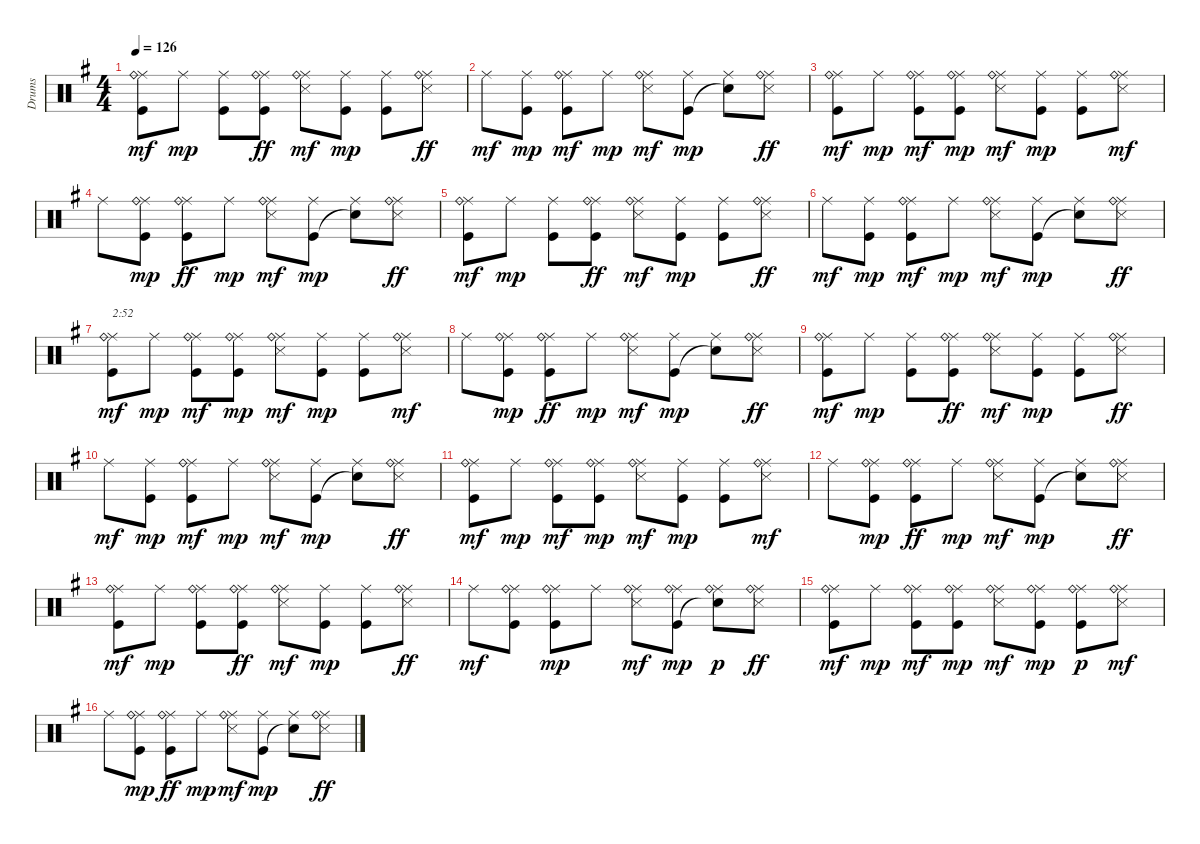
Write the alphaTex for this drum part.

\track ("Drums" "Drums") {instrument percussion}
\staff {score}
\articulation defaults
\ts (4 4)
\tempo 126
\clef neutral
\ks g
("Ride (middle)" "Ride (bell)" "Kick (hit)").8{dy mf} "Ride (middle)".8{dy mp} ("Ride (middle)" "Kick (hit)").8 ("Ride (middle)" "Ride (bell)" "Kick (hit)").8{dy ff} ("Ride (middle)" "Ride (bell)" "Snare (side stick) 3").8{dy mf} ("Ride (middle)" "Kick (hit)").8{dy mp} ("Ride (middle)" "Kick (hit)").8 ("Ride (middle)" "Ride (bell)" "Snare (side stick) 3").8{dy ff} |
"Ride (middle)".8{dy mf} ("Ride (middle)" "Kick (hit)").8{dy mp} ("Ride (middle)" "Ride (bell)" "Kick (hit)").8{dy mf} "Ride (middle)".8{dy mp} ("Ride (middle)" "Ride (bell)" "Snare (side stick) 3").8{dy mf} ("Ride (middle)" "Kick (hit)").8{dy mp} ("Ride (middle)" "Snare (hit)"{t}).8 ("Ride (middle)" "Ride (bell)" "Snare (side stick) 3").8{dy ff} |
("Ride (middle)" "Ride (bell)" "Kick (hit)").8{dy mf} "Ride (middle)".8{dy mp} ("Ride (middle)" "Ride (bell)" "Kick (hit)").8{dy mf} ("Ride (middle)" "Ride (bell)" "Kick (hit)").8{dy mp} ("Ride (middle)" "Ride (bell)" "Snare (side stick) 3").8{dy mf} ("Ride (middle)" "Kick (hit)").8{dy mp} ("Ride (middle)" "Kick (hit)").8 ("Ride (middle)" "Ride (bell)" "Snare (side stick) 3").8{dy mf} |
"Ride (middle)".8 ("Ride (middle)" "Ride (bell)" "Kick (hit)").8{dy mp} ("Ride (middle)" "Ride (bell)" "Kick (hit)").8{dy ff} "Ride (middle)".8{dy mp} ("Ride (middle)" "Ride (bell)" "Snare (side stick) 3").8{dy mf} ("Ride (middle)" "Kick (hit)").8{dy mp} ("Ride (middle)" "Snare (hit)"{t}).8 ("Ride (middle)" "Ride (bell)" "Snare (side stick) 3").8{dy ff} |
("Ride (middle)" "Ride (bell)" "Kick (hit)").8{dy mf} "Ride (middle)".8{dy mp} ("Ride (middle)" "Kick (hit)").8 ("Ride (middle)" "Ride (bell)" "Kick (hit)").8{dy ff} ("Ride (middle)" "Ride (bell)" "Snare (side stick) 3").8{dy mf} ("Ride (middle)" "Kick (hit)").8{dy mp} ("Ride (middle)" "Kick (hit)").8 ("Ride (middle)" "Ride (bell)" "Snare (side stick) 3").8{dy ff} |
"Ride (middle)".8{dy mf} ("Ride (middle)" "Kick (hit)").8{dy mp} ("Ride (middle)" "Ride (bell)" "Kick (hit)").8{dy mf} "Ride (middle)".8{dy mp} ("Ride (middle)" "Ride (bell)" "Snare (side stick) 3").8{dy mf} ("Ride (middle)" "Kick (hit)").8{dy mp} ("Ride (middle)" "Snare (hit)"{t}).8 ("Ride (middle)" "Ride (bell)" "Snare (side stick) 3").8{dy ff} |
("Ride (middle)" "Ride (bell)" "Kick (hit)").8{txt "2:52" dy mf} "Ride (middle)".8{dy mp} ("Ride (middle)" "Ride (bell)" "Kick (hit)").8{dy mf} ("Ride (middle)" "Ride (bell)" "Kick (hit)").8{dy mp} ("Ride (middle)" "Ride (bell)" "Snare (side stick) 3").8{dy mf} ("Ride (middle)" "Kick (hit)").8{dy mp} ("Ride (middle)" "Kick (hit)").8 ("Ride (middle)" "Ride (bell)" "Snare (side stick) 3").8{dy mf} |
"Ride (middle)".8 ("Ride (middle)" "Ride (bell)" "Kick (hit)").8{dy mp} ("Ride (middle)" "Ride (bell)" "Kick (hit)").8{dy ff} "Ride (middle)".8{dy mp} ("Ride (middle)" "Ride (bell)" "Snare (side stick) 3").8{dy mf} ("Ride (middle)" "Kick (hit)").8{dy mp} ("Ride (middle)" "Snare (hit)"{t}).8 ("Ride (middle)" "Ride (bell)" "Snare (side stick) 3").8{dy ff} |
("Ride (middle)" "Ride (bell)" "Kick (hit)").8{dy mf} "Ride (middle)".8{dy mp} ("Ride (middle)" "Kick (hit)").8 ("Ride (middle)" "Ride (bell)" "Kick (hit)").8{dy ff} ("Ride (middle)" "Ride (bell)" "Snare (side stick) 3").8{dy mf} ("Ride (middle)" "Kick (hit)").8{dy mp} ("Ride (middle)" "Kick (hit)").8 ("Ride (middle)" "Ride (bell)" "Snare (side stick) 3").8{dy ff} |
"Ride (middle)".8{dy mf} ("Ride (middle)" "Kick (hit)").8{dy mp} ("Ride (middle)" "Ride (bell)" "Kick (hit)").8{dy mf} "Ride (middle)".8{dy mp} ("Ride (middle)" "Ride (bell)" "Snare (side stick) 3").8{dy mf} ("Ride (middle)" "Kick (hit)").8{dy mp} ("Ride (middle)" "Snare (hit)"{t}).8 ("Ride (middle)" "Ride (bell)" "Snare (side stick) 3").8{dy ff} |
("Ride (middle)" "Ride (bell)" "Kick (hit)").8{dy mf} "Ride (middle)".8{dy mp} ("Ride (middle)" "Ride (bell)" "Kick (hit)").8{dy mf} ("Ride (middle)" "Ride (bell)" "Kick (hit)").8{dy mp} ("Ride (middle)" "Ride (bell)" "Snare (side stick) 3").8{dy mf} ("Ride (middle)" "Kick (hit)").8{dy mp} ("Ride (middle)" "Kick (hit)").8 ("Ride (middle)" "Ride (bell)" "Snare (side stick) 3").8{dy mf} |
"Ride (middle)".8 ("Ride (middle)" "Ride (bell)" "Kick (hit)").8{dy mp} ("Ride (middle)" "Ride (bell)" "Kick (hit)").8{dy ff} "Ride (middle)".8{dy mp} ("Ride (middle)" "Ride (bell)" "Snare (side stick) 3").8{dy mf} ("Ride (middle)" "Kick (hit)").8{dy mp} ("Ride (middle)" "Snare (hit)"{t}).8 ("Ride (middle)" "Ride (bell)" "Snare (side stick) 3").8{dy ff} |
("Ride (middle)" "Ride (bell)" "Kick (hit)").8{dy mf} "Ride (middle)".8{dy mp} ("Ride (middle)" "Ride (bell)" "Kick (hit)").8 ("Ride (middle)" "Ride (bell)" "Kick (hit)").8{dy ff} ("Ride (middle)" "Ride (bell)" "Snare (side stick) 3").8{dy mf} ("Ride (middle)" "Kick (hit)").8{dy mp} ("Ride (middle)" "Kick (hit)").8 ("Ride (middle)" "Ride (bell)" "Snare (side stick) 3").8{dy ff} |
"Ride (middle)".8{dy mf} ("Ride (middle)" "Ride (bell)" "Kick (hit)").8 ("Ride (middle)" "Ride (bell)" "Kick (hit)").8{dy mp} "Ride (middle)".8 ("Ride (middle)" "Ride (bell)" "Snare (side stick) 3").8{dy mf} ("Ride (middle)" "Ride (bell)" "Kick (hit)").8{dy mp} ("Ride (middle)" "Ride (bell)" "Snare (hit)"{t}).8{dy p} ("Ride (middle)" "Ride (bell)" "Snare (side stick) 3").8{dy ff} |
("Ride (middle)" "Ride (bell)" "Kick (hit)").8{dy mf} "Ride (middle)".8{dy mp} ("Ride (middle)" "Ride (bell)" "Kick (hit)").8{dy mf} ("Ride (middle)" "Ride (bell)" "Kick (hit)").8{dy mp} ("Ride (middle)" "Ride (bell)" "Snare (side stick) 3").8{dy mf} ("Ride (middle)" "Ride (bell)" "Kick (hit)").8{dy mp} ("Ride (middle)" "Ride (bell)" "Kick (hit)").8{dy p} ("Ride (middle)" "Ride (bell)" "Snare (side stick) 3").8{dy mf} |
"Ride (middle)".8 ("Ride (middle)" "Ride (bell)" "Kick (hit)").8{dy mp} ("Ride (middle)" "Ride (bell)" "Kick (hit)").8{dy ff} "Ride (middle)".8{dy mp} ("Ride (middle)" "Ride (bell)" "Snare (side stick) 3").8{dy mf} ("Ride (middle)" "Kick (hit)").8{dy mp} ("Ride (middle)" "Snare (hit)"{t}).8 ("Ride (middle)" "Ride (bell)" "Snare (side stick) 3").8{dy ff}
